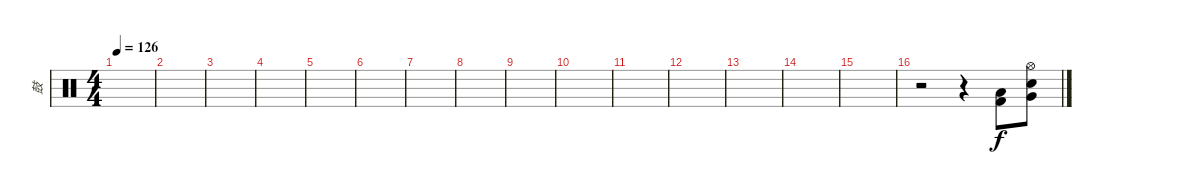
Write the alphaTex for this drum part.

\track ("鼓" "鼓") {instrument percussion}
\staff {score}
\articulation defaults
\ts (4 4)
\tempo 126
\clef neutral
\ks c
|
|
|
|
|
|
|
|
|
|
|
|
|
|
|
r.2 r.4 ("Low Floor Tom (hit)" "Kick (hit) 2").8 ("Hi-Hat (open)" "Very Low Tom (hit)" "Electric Snare (hit)").8
